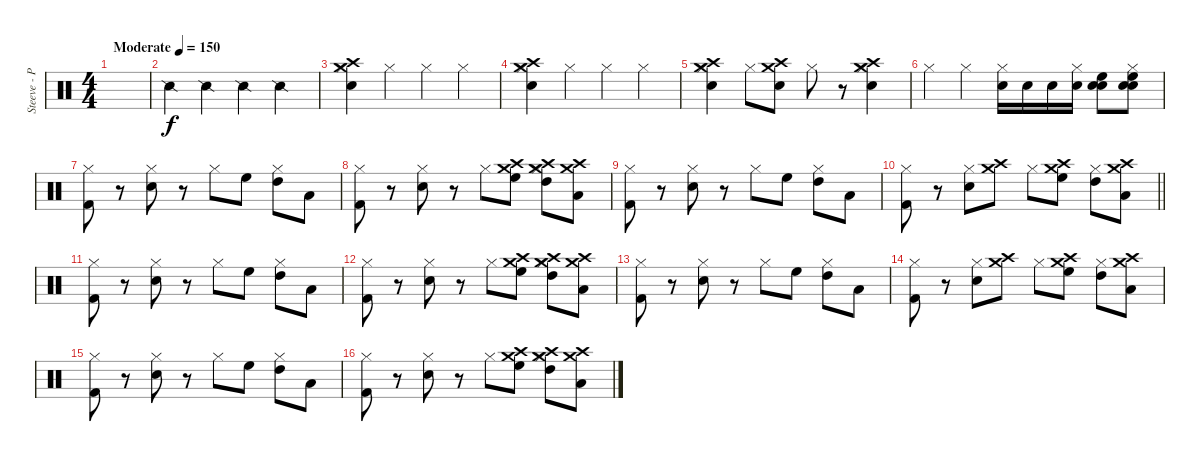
\track ("Steeve - Percussions" "Steeve - P") {instrument percussion}
\staff {score}
\articulation defaults
\ts (4 4)
\tempo (150 "Moderate")
\clef neutral
\ks c
|
"Snare (side stick) 2".4 "Snare (side stick) 2".4 "Snare (side stick) 2".4 "Snare (side stick) 2".4 |
("Hi-Hat (closed)" "Crash high (hit)" "Crash medium (hit)" "Snare (hit) 2").4 "Hi-Hat (closed)".4 "Hi-Hat (closed)".4 "Hi-Hat (closed)".4 |
("Hi-Hat (closed)" "Snare (hit) 2" "Crash medium (hit)" "Crash high (hit)").4 "Hi-Hat (closed)".4 "Hi-Hat (closed)".4 "Hi-Hat (closed)".4 |
("Hi-Hat (closed)" "Snare (hit) 2" "Crash medium (hit)" "Crash high (hit)").4 "Hi-Hat (closed)".8 ("Snare (hit) 2" "Crash medium (hit)" "Crash high (hit)").8 "Hi-Hat (closed)".8 r.8 ("Hi-Hat (closed)" "Snare (hit) 2" "Crash medium (hit)" "Crash high (hit)").4 |
"Hi-Hat (closed)".4 "Hi-Hat (closed)".4 ("Hi-Hat (closed)" "Snare (hit) 2").16 "Snare (hit) 2".16 "Snare (hit) 2".16 ("Hi-Hat (closed)" "Snare (hit) 2").16 ("Snare (hit)" "High Floor Tom (hit)" "Snare (hit) 2").8 ("Hi-Hat (closed)" "Snare (hit)" "High Floor Tom (hit)" "Snare (hit) 2").8 |
("Hi-Hat (closed)" "Kick (hit) 2").8 r.8 ("Hi-Hat (closed)" "Snare (hit) 2").8 r.8 "Hi-Hat (closed)".8 "High Floor Tom (hit)".8 ("Hi-Hat (closed)" "High Tom (hit)").8 "Low Tom (hit)".8 |
("Hi-Hat (closed)" "Kick (hit) 2").8 r.8 ("Hi-Hat (closed)" "Snare (hit) 2").8 r.8 "Hi-Hat (closed)".8 ("High Floor Tom (hit)" "Crash medium (hit)" "Crash high (hit)").8 ("Hi-Hat (closed)" "High Tom (hit)" "Crash medium (hit)" "Crash high (hit)").8 ("Low Tom (hit)" "Crash medium (hit)" "Crash high (hit)").8 |
("Hi-Hat (closed)" "Kick (hit) 2").8 r.8 ("Hi-Hat (closed)" "Snare (hit) 2").8 r.8 "Hi-Hat (closed)".8 "High Floor Tom (hit)".8 ("Hi-Hat (closed)" "High Tom (hit)").8 "Low Tom (hit)".8 |
\barLineRight lightlight
("Hi-Hat (closed)" "Kick (hit) 2").8 r.8 ("Hi-Hat (closed)" "Snare (hit) 2").8 ("Crash medium (hit)" "Crash high (hit)").8 "Hi-Hat (closed)".8 ("High Floor Tom (hit)" "Crash medium (hit)" "Crash high (hit)").8 ("Hi-Hat (closed)" "High Tom (hit)").8 ("Low Tom (hit)" "Crash medium (hit)" "Crash high (hit)").8 |
("Hi-Hat (closed)" "Kick (hit) 2").8 r.8 ("Hi-Hat (closed)" "Snare (hit) 2").8 r.8 "Hi-Hat (closed)".8 "High Floor Tom (hit)".8 ("Hi-Hat (closed)" "High Tom (hit)").8 "Low Tom (hit)".8 |
("Hi-Hat (closed)" "Kick (hit) 2").8 r.8 ("Hi-Hat (closed)" "Snare (hit) 2").8 r.8 "Hi-Hat (closed)".8 ("High Floor Tom (hit)" "Crash medium (hit)" "Crash high (hit)").8 ("Hi-Hat (closed)" "High Tom (hit)" "Crash medium (hit)" "Crash high (hit)").8 ("Low Tom (hit)" "Crash medium (hit)" "Crash high (hit)").8 |
("Hi-Hat (closed)" "Kick (hit) 2").8 r.8 ("Hi-Hat (closed)" "Snare (hit) 2").8 r.8 "Hi-Hat (closed)".8 "High Floor Tom (hit)".8 ("Hi-Hat (closed)" "High Tom (hit)").8 "Low Tom (hit)".8 |
("Hi-Hat (closed)" "Kick (hit) 2").8 r.8 ("Hi-Hat (closed)" "Snare (hit) 2").8 ("Crash medium (hit)" "Crash high (hit)").8 "Hi-Hat (closed)".8 ("High Floor Tom (hit)" "Crash medium (hit)" "Crash high (hit)").8 ("Hi-Hat (closed)" "High Tom (hit)").8 ("Low Tom (hit)" "Crash medium (hit)" "Crash high (hit)").8 |
("Hi-Hat (closed)" "Kick (hit) 2").8 r.8 ("Hi-Hat (closed)" "Snare (hit) 2").8 r.8 "Hi-Hat (closed)".8 "High Floor Tom (hit)".8 ("Hi-Hat (closed)" "High Tom (hit)").8 "Low Tom (hit)".8 |
("Hi-Hat (closed)" "Kick (hit) 2").8 r.8 ("Hi-Hat (closed)" "Snare (hit) 2").8 r.8 "Hi-Hat (closed)".8 ("High Floor Tom (hit)" "Crash medium (hit)" "Crash high (hit)").8 ("Hi-Hat (closed)" "High Tom (hit)" "Crash medium (hit)" "Crash high (hit)").8 ("Low Tom (hit)" "Crash medium (hit)" "Crash high (hit)").8
